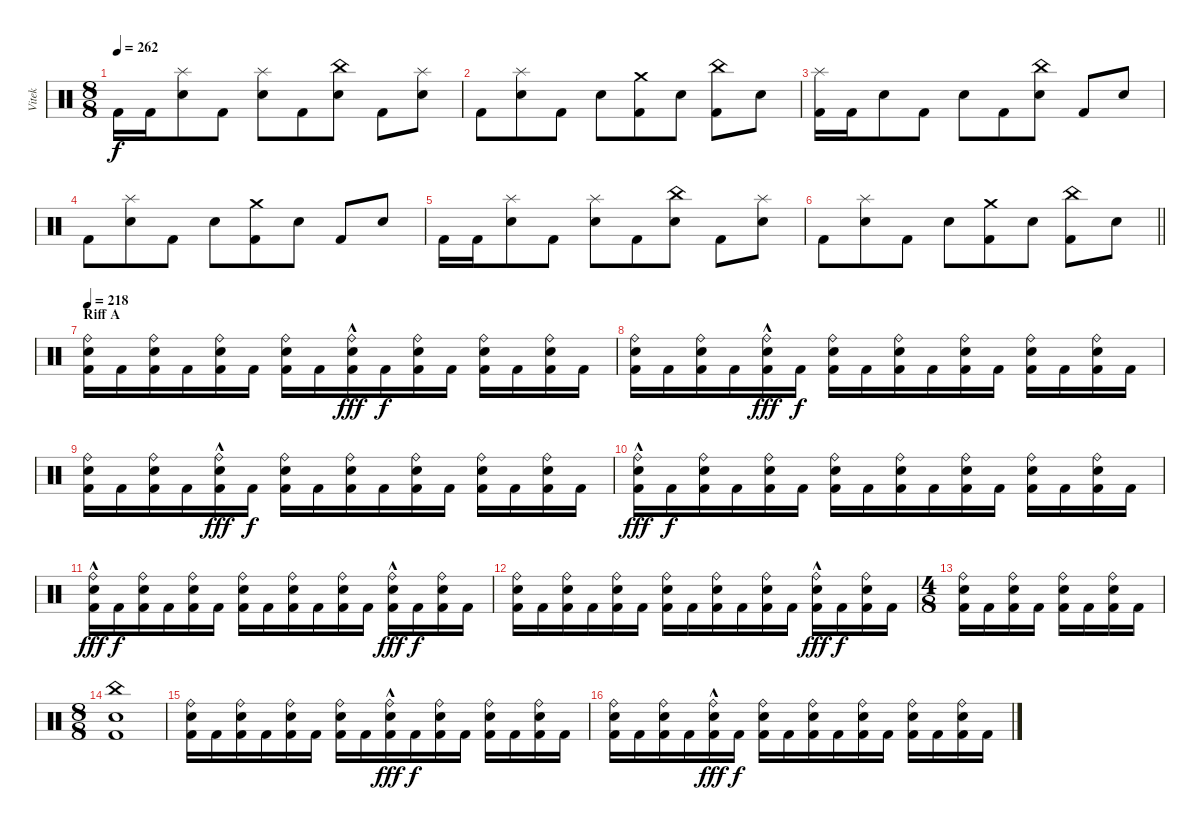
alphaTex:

\track ("Vitek" "Vitek") {instrument percussion}
\staff {score}
\articulation defaults
\ts (8 8)
\tempo 262
\clef neutral
\ks c "Kick (hit) 2".16{dy f} "Kick (hit) 2".16
("Splash (hit)" "Electric Snare (hit)").8 "Kick (hit) 2".8 ("Splash (hit)" "Electric Snare (hit)").8 "Kick (hit) 2".8 ("China (hit)" "Electric Snare (hit)").8 "Kick (hit) 2".8 ("Splash (hit)" "Electric Snare (hit)").8 |
"Kick (hit) 2".8 ("Splash (hit)" "Electric Snare (hit)").8 "Kick (hit) 2".8 "Electric Snare (hit)".8 ("Crash medium (hit)" "Kick (hit) 2").8 "Electric Snare (hit)".8 ("China (hit)" "Kick (hit) 2").8 "Electric Snare (hit)".8 |
("Splash (hit)" "Kick (hit) 2").16 "Kick (hit) 2".16 "Electric Snare (hit)".8 "Kick (hit) 2".8 "Electric Snare (hit)".8 "Kick (hit) 2".8 ("China (hit)" "Electric Snare (hit)").8 "Kick (hit) 2".8 "Electric Snare (hit)".8 |
"Kick (hit) 2".8 ("Splash (hit)" "Electric Snare (hit)").8 "Kick (hit) 2".8 "Electric Snare (hit)".8 ("Crash medium (hit)" "Kick (hit) 2").8 "Electric Snare (hit)".8 "Kick (hit) 2".8 "Electric Snare (hit)".8 |
"Kick (hit) 2".16 "Kick (hit) 2".16 ("Splash (hit)" "Electric Snare (hit)").8 "Kick (hit) 2".8 ("Splash (hit)" "Electric Snare (hit)").8 "Kick (hit) 2".8 ("China (hit)" "Electric Snare (hit)").8 "Kick (hit) 2".8 ("Splash (hit)" "Electric Snare (hit)").8 |
\barLineRight lightlight "Kick (hit) 2".8
("Splash (hit)" "Electric Snare (hit)").8 "Kick (hit) 2".8 "Electric Snare (hit)".8 ("Crash medium (hit)" "Kick (hit) 2").8 "Electric Snare (hit)".8 ("China (hit)" "Kick (hit) 2").8 "Electric Snare (hit)".8 |
\section ("" "Riff A")
\tempo 218
("Ride (bell)" "Electric Snare (hit)" "Kick (hit) 2").16 "Kick (hit) 2".16 ("Ride (bell)" "Electric Snare (hit)" "Kick (hit) 2").16 "Kick (hit) 2".16 ("Ride (bell)" "Electric Snare (hit)" "Kick (hit) 2").16 "Kick (hit) 2".16 ("Ride (bell)" "Electric Snare (hit)" "Kick (hit) 2").16 "Kick (hit) 2".16 ("Ride (bell)"{hac} "Electric Snare (hit)" "Kick (hit) 2").16{dy fff} "Kick (hit) 2".16{dy f} ("Ride (bell)" "Electric Snare (hit)" "Kick (hit) 2").16 "Kick (hit) 2".16 ("Ride (bell)" "Electric Snare (hit)" "Kick (hit) 2").16 "Kick (hit) 2".16 ("Ride (bell)" "Electric Snare (hit)" "Kick (hit) 2").16 "Kick (hit) 2".16 |
("Ride (bell)" "Electric Snare (hit)" "Kick (hit) 2").16 "Kick (hit) 2".16 ("Ride (bell)" "Electric Snare (hit)" "Kick (hit) 2").16 "Kick (hit) 2".16 ("Ride (bell)"{hac} "Electric Snare (hit)" "Kick (hit) 2").16{dy fff} "Kick (hit) 2".16{dy f} ("Ride (bell)" "Electric Snare (hit)" "Kick (hit) 2").16 "Kick (hit) 2".16 ("Ride (bell)" "Electric Snare (hit)" "Kick (hit) 2").16 "Kick (hit) 2".16 ("Ride (bell)" "Electric Snare (hit)" "Kick (hit) 2").16 "Kick (hit) 2".16 ("Ride (bell)" "Electric Snare (hit)" "Kick (hit) 2").16 "Kick (hit) 2".16 ("Ride (bell)" "Electric Snare (hit)" "Kick (hit) 2").16 "Kick (hit) 2".16 |
("Ride (bell)" "Electric Snare (hit)" "Kick (hit) 2").16 "Kick (hit) 2".16 ("Ride (bell)" "Electric Snare (hit)" "Kick (hit) 2").16 "Kick (hit) 2".16 ("Ride (bell)"{hac} "Electric Snare (hit)" "Kick (hit) 2").16{dy fff} "Kick (hit) 2".16{dy f} ("Ride (bell)" "Electric Snare (hit)" "Kick (hit) 2").16 "Kick (hit) 2".16 ("Ride (bell)" "Electric Snare (hit)" "Kick (hit) 2").16 "Kick (hit) 2".16 ("Ride (bell)" "Electric Snare (hit)" "Kick (hit) 2").16 "Kick (hit) 2".16 ("Ride (bell)" "Electric Snare (hit)" "Kick (hit) 2").16 "Kick (hit) 2".16 ("Ride (bell)" "Electric Snare (hit)" "Kick (hit) 2").16 "Kick (hit) 2".16 |
("Ride (bell)"{hac} "Electric Snare (hit)" "Kick (hit) 2").16{dy fff} "Kick (hit) 2".16{dy f} ("Ride (bell)" "Electric Snare (hit)" "Kick (hit) 2").16 "Kick (hit) 2".16 ("Ride (bell)" "Electric Snare (hit)" "Kick (hit) 2").16 "Kick (hit) 2".16 ("Ride (bell)" "Electric Snare (hit)" "Kick (hit) 2").16 "Kick (hit) 2".16 ("Ride (bell)" "Electric Snare (hit)" "Kick (hit) 2").16 "Kick (hit) 2".16 ("Ride (bell)" "Electric Snare (hit)" "Kick (hit) 2").16 "Kick (hit) 2".16 ("Ride (bell)" "Electric Snare (hit)" "Kick (hit) 2").16 "Kick (hit) 2".16 ("Ride (bell)" "Electric Snare (hit)" "Kick (hit) 2").16 "Kick (hit) 2".16 |
("Ride (bell)"{hac} "Electric Snare (hit)" "Kick (hit) 2").16{dy fff} "Kick (hit) 2".16{dy f} ("Ride (bell)" "Electric Snare (hit)" "Kick (hit) 2").16 "Kick (hit) 2".16 ("Ride (bell)" "Electric Snare (hit)" "Kick (hit) 2").16 "Kick (hit) 2".16 ("Ride (bell)" "Electric Snare (hit)" "Kick (hit) 2").16 "Kick (hit) 2".16 ("Ride (bell)" "Electric Snare (hit)" "Kick (hit) 2").16 "Kick (hit) 2".16 ("Ride (bell)" "Electric Snare (hit)" "Kick (hit) 2").16 "Kick (hit) 2".16 ("Ride (bell)"{hac} "Electric Snare (hit)" "Kick (hit) 2").16{dy fff} "Kick (hit) 2".16{dy f} ("Ride (bell)" "Electric Snare (hit)" "Kick (hit) 2").16 "Kick (hit) 2".16 |
("Ride (bell)" "Electric Snare (hit)" "Kick (hit) 2").16 "Kick (hit) 2".16 ("Ride (bell)" "Electric Snare (hit)" "Kick (hit) 2").16 "Kick (hit) 2".16 ("Ride (bell)" "Electric Snare (hit)" "Kick (hit) 2").16 "Kick (hit) 2".16 ("Ride (bell)" "Electric Snare (hit)" "Kick (hit) 2").16 "Kick (hit) 2".16 ("Ride (bell)" "Electric Snare (hit)" "Kick (hit) 2").16 "Kick (hit) 2".16 ("Ride (bell)" "Electric Snare (hit)" "Kick (hit) 2").16 "Kick (hit) 2".16 ("Ride (bell)"{hac} "Electric Snare (hit)" "Kick (hit) 2").16{dy fff} "Kick (hit) 2".16{dy f} ("Ride (bell)" "Electric Snare (hit)" "Kick (hit) 2").16 "Kick (hit) 2".16 |
\ts (4 8)
("Ride (bell)" "Electric Snare (hit)" "Kick (hit) 2").16 "Kick (hit) 2".16 ("Ride (bell)" "Electric Snare (hit)" "Kick (hit) 2").16 "Kick (hit) 2".16 ("Ride (bell)" "Electric Snare (hit)" "Kick (hit) 2").16 "Kick (hit) 2".16 ("Ride (bell)" "Electric Snare (hit)" "Kick (hit) 2").16 "Kick (hit) 2".16 |
\ts (8 8)
("China (hit)" "Electric Snare (hit)" "Kick (hit) 2").1 |
("Ride (bell)" "Electric Snare (hit)" "Kick (hit) 2").16 "Kick (hit) 2".16 ("Ride (bell)" "Electric Snare (hit)" "Kick (hit) 2").16 "Kick (hit) 2".16 ("Ride (bell)" "Electric Snare (hit)" "Kick (hit) 2").16 "Kick (hit) 2".16 ("Ride (bell)" "Electric Snare (hit)" "Kick (hit) 2").16 "Kick (hit) 2".16 ("Ride (bell)"{hac} "Electric Snare (hit)" "Kick (hit) 2").16{dy fff} "Kick (hit) 2".16{dy f} ("Ride (bell)" "Electric Snare (hit)" "Kick (hit) 2").16 "Kick (hit) 2".16 ("Ride (bell)" "Electric Snare (hit)" "Kick (hit) 2").16 "Kick (hit) 2".16 ("Ride (bell)" "Electric Snare (hit)" "Kick (hit) 2").16 "Kick (hit) 2".16 |
("Ride (bell)" "Electric Snare (hit)" "Kick (hit) 2").16 "Kick (hit) 2".16 ("Ride (bell)" "Electric Snare (hit)" "Kick (hit) 2").16 "Kick (hit) 2".16 ("Ride (bell)"{hac} "Electric Snare (hit)" "Kick (hit) 2").16{dy fff} "Kick (hit) 2".16{dy f} ("Ride (bell)" "Electric Snare (hit)" "Kick (hit) 2").16 "Kick (hit) 2".16 ("Ride (bell)" "Electric Snare (hit)" "Kick (hit) 2").16 "Kick (hit) 2".16 ("Ride (bell)" "Electric Snare (hit)" "Kick (hit) 2").16 "Kick (hit) 2".16 ("Ride (bell)" "Electric Snare (hit)" "Kick (hit) 2").16 "Kick (hit) 2".16 ("Ride (bell)" "Electric Snare (hit)" "Kick (hit) 2").16 "Kick (hit) 2".16
